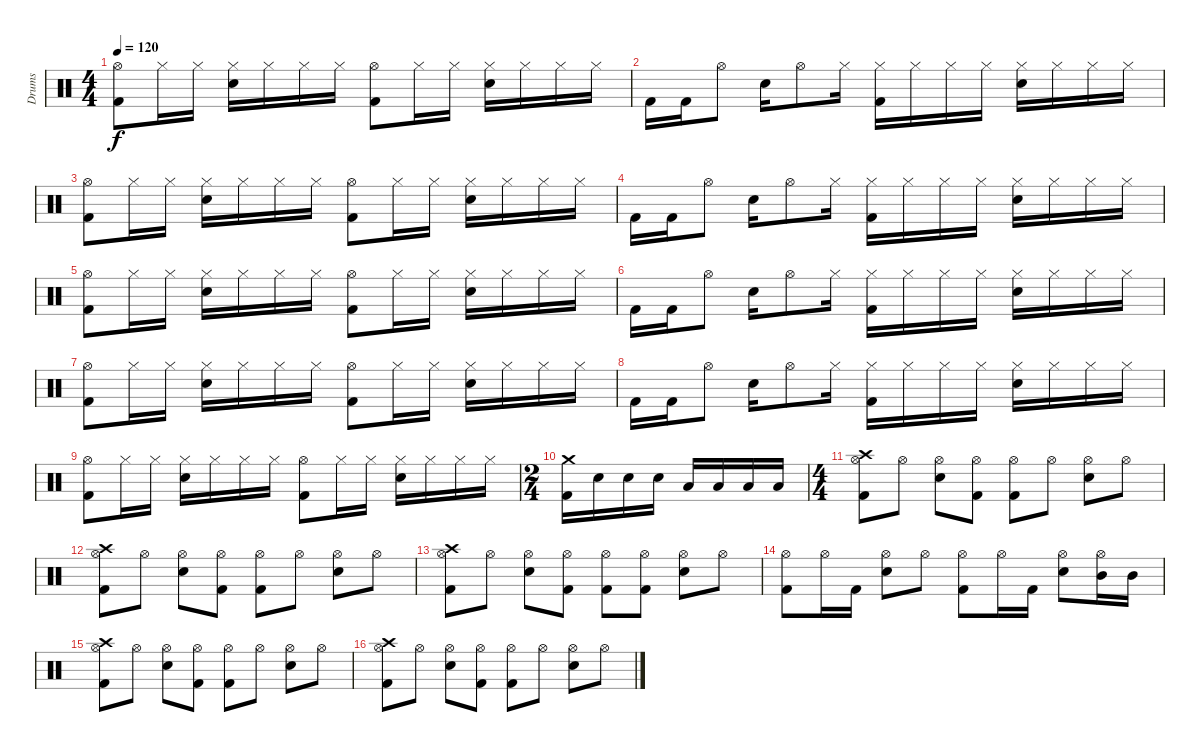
\track ("Drums" "Drums") {instrument percussion}
\staff {score}
\articulation defaults
\ts (4 4)
\tempo 120
\clef neutral
\ks c
("Kick (hit) 2" "Hi-Hat (open)").8{dy f} "Hi-Hat (closed)".16 "Hi-Hat (closed)".16 ("Snare (hit) 2" "Hi-Hat (closed)").16 "Hi-Hat (closed)".16 "Hi-Hat (closed)".16 "Hi-Hat (closed)".16 ("Kick (hit) 2" "Hi-Hat (open)").8 "Hi-Hat (closed)".16 "Hi-Hat (closed)".16 ("Snare (hit) 2" "Hi-Hat (closed)").16 "Hi-Hat (closed)".16 "Hi-Hat (closed)".16 "Hi-Hat (closed)".16 |
"Kick (hit) 2".16 "Kick (hit) 2".16 "Hi-Hat (open)".8 "Snare (hit) 2".16 "Hi-Hat (open)".8 "Hi-Hat (closed)".16 ("Kick (hit) 2" "Hi-Hat (closed)").16 "Hi-Hat (closed)".16 "Hi-Hat (closed)".16 "Hi-Hat (closed)".16 ("Snare (hit) 2" "Hi-Hat (closed)").16 "Hi-Hat (closed)".16 "Hi-Hat (closed)".16 "Hi-Hat (closed)".16 |
("Kick (hit) 2" "Hi-Hat (open)").8 "Hi-Hat (closed)".16 "Hi-Hat (closed)".16 ("Snare (hit) 2" "Hi-Hat (closed)").16 "Hi-Hat (closed)".16 "Hi-Hat (closed)".16 "Hi-Hat (closed)".16 ("Kick (hit) 2" "Hi-Hat (open)").8 "Hi-Hat (closed)".16 "Hi-Hat (closed)".16 ("Snare (hit) 2" "Hi-Hat (closed)").16 "Hi-Hat (closed)".16 "Hi-Hat (closed)".16 "Hi-Hat (closed)".16 |
"Kick (hit) 2".16 "Kick (hit) 2".16 "Hi-Hat (open)".8 "Snare (hit) 2".16 "Hi-Hat (open)".8 "Hi-Hat (closed)".16 ("Kick (hit) 2" "Hi-Hat (closed)").16 "Hi-Hat (closed)".16 "Hi-Hat (closed)".16 "Hi-Hat (closed)".16 ("Snare (hit) 2" "Hi-Hat (closed)").16 "Hi-Hat (closed)".16 "Hi-Hat (closed)".16 "Hi-Hat (closed)".16 |
("Kick (hit) 2" "Hi-Hat (open)").8 "Hi-Hat (closed)".16 "Hi-Hat (closed)".16 ("Snare (hit) 2" "Hi-Hat (closed)").16 "Hi-Hat (closed)".16 "Hi-Hat (closed)".16 "Hi-Hat (closed)".16 ("Kick (hit) 2" "Hi-Hat (open)").8 "Hi-Hat (closed)".16 "Hi-Hat (closed)".16 ("Snare (hit) 2" "Hi-Hat (closed)").16 "Hi-Hat (closed)".16 "Hi-Hat (closed)".16 "Hi-Hat (closed)".16 |
"Kick (hit) 2".16 "Kick (hit) 2".16 "Hi-Hat (open)".8 "Snare (hit) 2".16 "Hi-Hat (open)".8 "Hi-Hat (closed)".16 ("Kick (hit) 2" "Hi-Hat (closed)").16 "Hi-Hat (closed)".16 "Hi-Hat (closed)".16 "Hi-Hat (closed)".16 ("Snare (hit) 2" "Hi-Hat (closed)").16 "Hi-Hat (closed)".16 "Hi-Hat (closed)".16 "Hi-Hat (closed)".16 |
("Kick (hit) 2" "Hi-Hat (open)").8 "Hi-Hat (closed)".16 "Hi-Hat (closed)".16 ("Snare (hit) 2" "Hi-Hat (closed)").16 "Hi-Hat (closed)".16 "Hi-Hat (closed)".16 "Hi-Hat (closed)".16 ("Kick (hit) 2" "Hi-Hat (open)").8 "Hi-Hat (closed)".16 "Hi-Hat (closed)".16 ("Snare (hit) 2" "Hi-Hat (closed)").16 "Hi-Hat (closed)".16 "Hi-Hat (closed)".16 "Hi-Hat (closed)".16 |
"Kick (hit) 2".16 "Kick (hit) 2".16 "Hi-Hat (open)".8 "Snare (hit) 2".16 "Hi-Hat (open)".8 "Hi-Hat (closed)".16 ("Kick (hit) 2" "Hi-Hat (closed)").16 "Hi-Hat (closed)".16 "Hi-Hat (closed)".16 "Hi-Hat (closed)".16 ("Snare (hit) 2" "Hi-Hat (closed)").16 "Hi-Hat (closed)".16 "Hi-Hat (closed)".16 "Hi-Hat (closed)".16 |
("Kick (hit) 2" "Hi-Hat (open)").8 "Hi-Hat (closed)".16 "Hi-Hat (closed)".16 ("Snare (hit) 2" "Hi-Hat (closed)").16 "Hi-Hat (closed)".16 "Hi-Hat (closed)".16 "Hi-Hat (closed)".16 ("Kick (hit) 2" "Hi-Hat (open)").8 "Hi-Hat (closed)".16 "Hi-Hat (closed)".16 ("Snare (hit) 2" "Hi-Hat (closed)").16 "Hi-Hat (closed)".16 "Hi-Hat (closed)".16 "Hi-Hat (closed)".16 |
\ts (2 4)
("Kick (hit) 2" "Crash medium (hit)").16 "Snare (hit) 2".16 "Snare (hit) 2".16 "Snare (hit) 2".16 "Low Tom (hit)".16 "Low Tom (hit)".16 "Low Floor Tom (hit)".16 "Low Floor Tom (hit)".16 |
\ts (4 4)
("Kick (hit) 2" "Hi-Hat (open)" "Crash high (hit)").8 "Hi-Hat (open)".8 ("Snare (hit) 2" "Hi-Hat (open)").8 ("Kick (hit) 2" "Hi-Hat (open)").8 ("Kick (hit) 2" "Hi-Hat (open)").8 "Hi-Hat (open)".8 ("Snare (hit) 2" "Hi-Hat (open)").8 "Hi-Hat (open)".8 |
("Kick (hit) 2" "Hi-Hat (open)" "Crash high (hit)").8 "Hi-Hat (open)".8 ("Snare (hit) 2" "Hi-Hat (open)").8 ("Kick (hit) 2" "Hi-Hat (open)").8 ("Kick (hit) 2" "Hi-Hat (open)").8 "Hi-Hat (open)".8 ("Snare (hit) 2" "Hi-Hat (open)").8 "Hi-Hat (open)".8 |
("Kick (hit) 2" "Hi-Hat (open)" "Crash high (hit)").8 "Hi-Hat (open)".8 ("Snare (hit) 2" "Hi-Hat (open)").8 ("Kick (hit) 2" "Hi-Hat (open)").8 ("Kick (hit) 2" "Hi-Hat (open)").8 ("Kick (hit) 2" "Hi-Hat (open)").8 ("Snare (hit) 2" "Hi-Hat (open)").8 "Hi-Hat (open)".8 |
("Kick (hit) 2" "Hi-Hat (open)").8 "Hi-Hat (open)".16 "Kick (hit) 2".16 ("Snare (hit) 2" "Hi-Hat (open)").8 "Hi-Hat (open)".8 ("Kick (hit) 2" "Hi-Hat (open)").8 "Hi-Hat (open)".16 "Kick (hit) 2".16 ("Snare (hit) 2" "Hi-Hat (open)").8 ("Hi-Hat (open)" "Mid Tom (hit)").16 "Mid Tom (hit)".16 |
("Kick (hit) 2" "Hi-Hat (open)" "Crash high (hit)").8 "Hi-Hat (open)".8 ("Snare (hit) 2" "Hi-Hat (open)").8 ("Kick (hit) 2" "Hi-Hat (open)").8 ("Kick (hit) 2" "Hi-Hat (open)").8 "Hi-Hat (open)".8 ("Snare (hit) 2" "Hi-Hat (open)").8 "Hi-Hat (open)".8 |
("Kick (hit) 2" "Hi-Hat (open)" "Crash high (hit)").8 "Hi-Hat (open)".8 ("Snare (hit) 2" "Hi-Hat (open)").8 ("Kick (hit) 2" "Hi-Hat (open)").8 ("Kick (hit) 2" "Hi-Hat (open)").8 "Hi-Hat (open)".8 ("Snare (hit) 2" "Hi-Hat (open)").8 "Hi-Hat (open)".8
